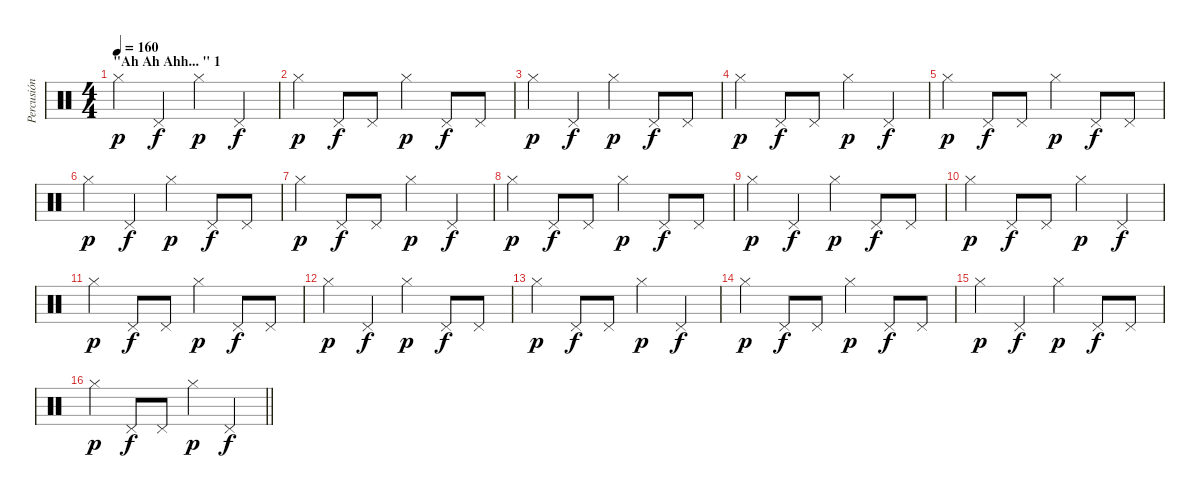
\track ("Percusión" "Percusión") {instrument percussion}
\staff {score}
\articulation defaults
\ts (4 4)
\section ("" "\"Ah Ah Ahh... \" 1")
\tempo 160
\clef neutral
\ks c "Hi-Hat (closed)".4{dy p} "Pedal Hi-Hat (hit)".4{dy f} "Hi-Hat (closed)".4{dy p} "Pedal Hi-Hat (hit)".4{dy f}
|
"Hi-Hat (closed)".4{dy p} "Pedal Hi-Hat (hit)".8{dy f} "Pedal Hi-Hat (hit)".8 "Hi-Hat (closed)".4{dy p} "Pedal Hi-Hat (hit)".8{dy f} "Pedal Hi-Hat (hit)".8 |
"Hi-Hat (closed)".4{dy p} "Pedal Hi-Hat (hit)".4{dy f} "Hi-Hat (closed)".4{dy p} "Pedal Hi-Hat (hit)".8{dy f} "Pedal Hi-Hat (hit)".8 |
"Hi-Hat (closed)".4{dy p} "Pedal Hi-Hat (hit)".8{dy f} "Pedal Hi-Hat (hit)".8 "Hi-Hat (closed)".4{dy p} "Pedal Hi-Hat (hit)".4{dy f} |
"Hi-Hat (closed)".4{dy p} "Pedal Hi-Hat (hit)".8{dy f} "Pedal Hi-Hat (hit)".8 "Hi-Hat (closed)".4{dy p} "Pedal Hi-Hat (hit)".8{dy f} "Pedal Hi-Hat (hit)".8 |
"Hi-Hat (closed)".4{dy p} "Pedal Hi-Hat (hit)".4{dy f} "Hi-Hat (closed)".4{dy p} "Pedal Hi-Hat (hit)".8{dy f} "Pedal Hi-Hat (hit)".8 |
"Hi-Hat (closed)".4{dy p} "Pedal Hi-Hat (hit)".8{dy f} "Pedal Hi-Hat (hit)".8 "Hi-Hat (closed)".4{dy p} "Pedal Hi-Hat (hit)".4{dy f} |
"Hi-Hat (closed)".4{dy p} "Pedal Hi-Hat (hit)".8{dy f} "Pedal Hi-Hat (hit)".8 "Hi-Hat (closed)".4{dy p} "Pedal Hi-Hat (hit)".8{dy f} "Pedal Hi-Hat (hit)".8 |
"Hi-Hat (closed)".4{dy p} "Pedal Hi-Hat (hit)".4{dy f} "Hi-Hat (closed)".4{dy p} "Pedal Hi-Hat (hit)".8{dy f} "Pedal Hi-Hat (hit)".8 |
"Hi-Hat (closed)".4{dy p} "Pedal Hi-Hat (hit)".8{dy f} "Pedal Hi-Hat (hit)".8 "Hi-Hat (closed)".4{dy p} "Pedal Hi-Hat (hit)".4{dy f} |
"Hi-Hat (closed)".4{dy p} "Pedal Hi-Hat (hit)".8{dy f} "Pedal Hi-Hat (hit)".8 "Hi-Hat (closed)".4{dy p} "Pedal Hi-Hat (hit)".8{dy f} "Pedal Hi-Hat (hit)".8 |
"Hi-Hat (closed)".4{dy p} "Pedal Hi-Hat (hit)".4{dy f} "Hi-Hat (closed)".4{dy p} "Pedal Hi-Hat (hit)".8{dy f} "Pedal Hi-Hat (hit)".8 |
"Hi-Hat (closed)".4{dy p} "Pedal Hi-Hat (hit)".8{dy f} "Pedal Hi-Hat (hit)".8 "Hi-Hat (closed)".4{dy p} "Pedal Hi-Hat (hit)".4{dy f} |
"Hi-Hat (closed)".4{dy p} "Pedal Hi-Hat (hit)".8{dy f} "Pedal Hi-Hat (hit)".8 "Hi-Hat (closed)".4{dy p} "Pedal Hi-Hat (hit)".8{dy f} "Pedal Hi-Hat (hit)".8 |
"Hi-Hat (closed)".4{dy p} "Pedal Hi-Hat (hit)".4{dy f} "Hi-Hat (closed)".4{dy p} "Pedal Hi-Hat (hit)".8{dy f} "Pedal Hi-Hat (hit)".8 |
\barLineRight lightlight "Hi-Hat (closed)".4{dy p} "Pedal Hi-Hat (hit)".8{dy f} "Pedal Hi-Hat (hit)".8 "Hi-Hat (closed)".4{dy p} "Pedal Hi-Hat (hit)".4{dy f}
